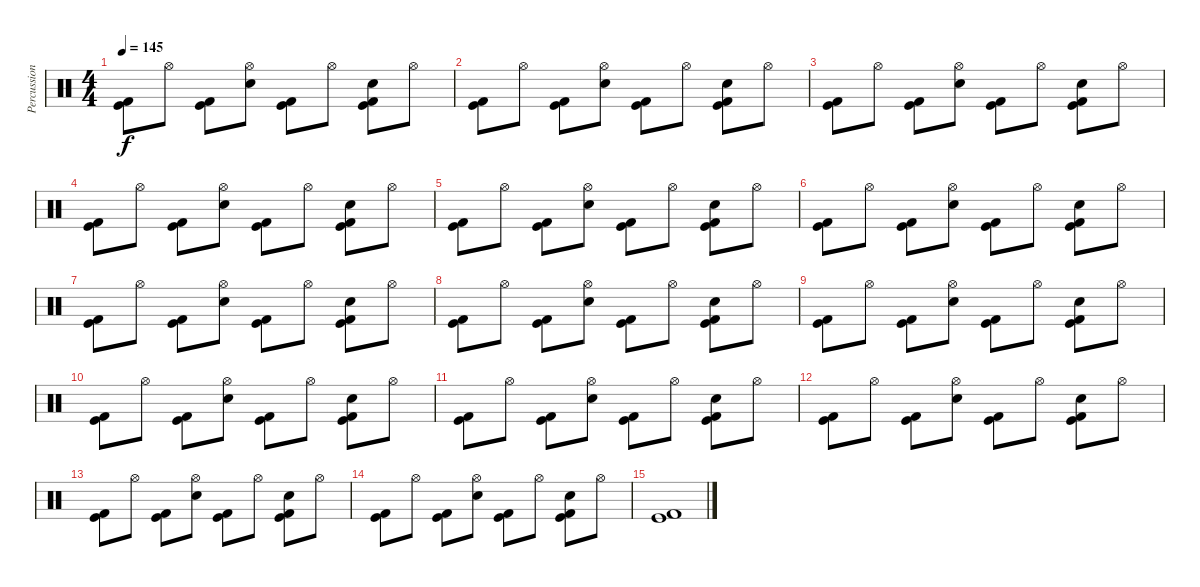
\track ("Percussion" "Percussion") {instrument percussion}
\staff {score}
\articulation defaults
\ts (4 4)
\tempo 145
\clef neutral
\ks c
("Kick (hit)" "Kick (hit) 2").8{dy f} "Hi-Hat (open)".8 ("Kick (hit)" "Kick (hit) 2").8 ("Hi-Hat (open)" "Snare (hit) 2").8 ("Kick (hit)" "Kick (hit) 2").8 "Hi-Hat (open)".8 ("Electric Snare (hit)" "Kick (hit)" "Kick (hit) 2").8 "Hi-Hat (open)".8 |
("Kick (hit)" "Kick (hit) 2").8 "Hi-Hat (open)".8 ("Kick (hit)" "Kick (hit) 2").8 ("Hi-Hat (open)" "Snare (hit) 2").8 ("Kick (hit)" "Kick (hit) 2").8 "Hi-Hat (open)".8 ("Electric Snare (hit)" "Kick (hit)" "Kick (hit) 2").8 "Hi-Hat (open)".8 |
("Kick (hit)" "Kick (hit) 2").8 "Hi-Hat (open)".8 ("Kick (hit)" "Kick (hit) 2").8 ("Hi-Hat (open)" "Snare (hit) 2").8 ("Kick (hit)" "Kick (hit) 2").8 "Hi-Hat (open)".8 ("Electric Snare (hit)" "Kick (hit)" "Kick (hit) 2").8 "Hi-Hat (open)".8 |
("Kick (hit)" "Kick (hit) 2").8 "Hi-Hat (open)".8 ("Kick (hit)" "Kick (hit) 2").8 ("Hi-Hat (open)" "Snare (hit) 2").8 ("Kick (hit)" "Kick (hit) 2").8 "Hi-Hat (open)".8 ("Electric Snare (hit)" "Kick (hit)" "Kick (hit) 2").8 "Hi-Hat (open)".8 |
("Kick (hit)" "Kick (hit) 2").8 "Hi-Hat (open)".8 ("Kick (hit)" "Kick (hit) 2").8 ("Hi-Hat (open)" "Snare (hit) 2").8 ("Kick (hit)" "Kick (hit) 2").8 "Hi-Hat (open)".8 ("Electric Snare (hit)" "Kick (hit)" "Kick (hit) 2").8 "Hi-Hat (open)".8 |
("Kick (hit)" "Kick (hit) 2").8 "Hi-Hat (open)".8 ("Kick (hit)" "Kick (hit) 2").8 ("Hi-Hat (open)" "Snare (hit) 2").8 ("Kick (hit)" "Kick (hit) 2").8 "Hi-Hat (open)".8 ("Electric Snare (hit)" "Kick (hit)" "Kick (hit) 2").8 "Hi-Hat (open)".8 |
("Kick (hit)" "Kick (hit) 2").8 "Hi-Hat (open)".8 ("Kick (hit)" "Kick (hit) 2").8 ("Hi-Hat (open)" "Snare (hit) 2").8 ("Kick (hit)" "Kick (hit) 2").8 "Hi-Hat (open)".8 ("Electric Snare (hit)" "Kick (hit)" "Kick (hit) 2").8 "Hi-Hat (open)".8 |
("Kick (hit)" "Kick (hit) 2").8 "Hi-Hat (open)".8 ("Kick (hit)" "Kick (hit) 2").8 ("Hi-Hat (open)" "Snare (hit) 2").8 ("Kick (hit)" "Kick (hit) 2").8 "Hi-Hat (open)".8 ("Electric Snare (hit)" "Kick (hit)" "Kick (hit) 2").8 "Hi-Hat (open)".8 |
("Kick (hit)" "Kick (hit) 2").8 "Hi-Hat (open)".8 ("Kick (hit)" "Kick (hit) 2").8 ("Hi-Hat (open)" "Snare (hit) 2").8 ("Kick (hit)" "Kick (hit) 2").8 "Hi-Hat (open)".8 ("Electric Snare (hit)" "Kick (hit)" "Kick (hit) 2").8 "Hi-Hat (open)".8 |
("Kick (hit)" "Kick (hit) 2").8 "Hi-Hat (open)".8 ("Kick (hit)" "Kick (hit) 2").8 ("Hi-Hat (open)" "Snare (hit) 2").8 ("Kick (hit)" "Kick (hit) 2").8 "Hi-Hat (open)".8 ("Electric Snare (hit)" "Kick (hit)" "Kick (hit) 2").8 "Hi-Hat (open)".8 |
("Kick (hit)" "Kick (hit) 2").8 "Hi-Hat (open)".8 ("Kick (hit)" "Kick (hit) 2").8 ("Hi-Hat (open)" "Snare (hit) 2").8 ("Kick (hit)" "Kick (hit) 2").8 "Hi-Hat (open)".8 ("Electric Snare (hit)" "Kick (hit)" "Kick (hit) 2").8 "Hi-Hat (open)".8 |
("Kick (hit)" "Kick (hit) 2").8 "Hi-Hat (open)".8 ("Kick (hit)" "Kick (hit) 2").8 ("Hi-Hat (open)" "Snare (hit) 2").8 ("Kick (hit)" "Kick (hit) 2").8 "Hi-Hat (open)".8 ("Electric Snare (hit)" "Kick (hit)" "Kick (hit) 2").8 "Hi-Hat (open)".8 |
("Kick (hit)" "Kick (hit) 2").8 "Hi-Hat (open)".8 ("Kick (hit)" "Kick (hit) 2").8 ("Hi-Hat (open)" "Snare (hit) 2").8 ("Kick (hit)" "Kick (hit) 2").8 "Hi-Hat (open)".8 ("Electric Snare (hit)" "Kick (hit)" "Kick (hit) 2").8 "Hi-Hat (open)".8 |
("Kick (hit)" "Kick (hit) 2").8 "Hi-Hat (open)".8 ("Kick (hit)" "Kick (hit) 2").8 ("Hi-Hat (open)" "Snare (hit) 2").8 ("Kick (hit)" "Kick (hit) 2").8 "Hi-Hat (open)".8 ("Electric Snare (hit)" "Kick (hit)" "Kick (hit) 2").8 "Hi-Hat (open)".8 |
("Kick (hit)" "Kick (hit) 2").1
